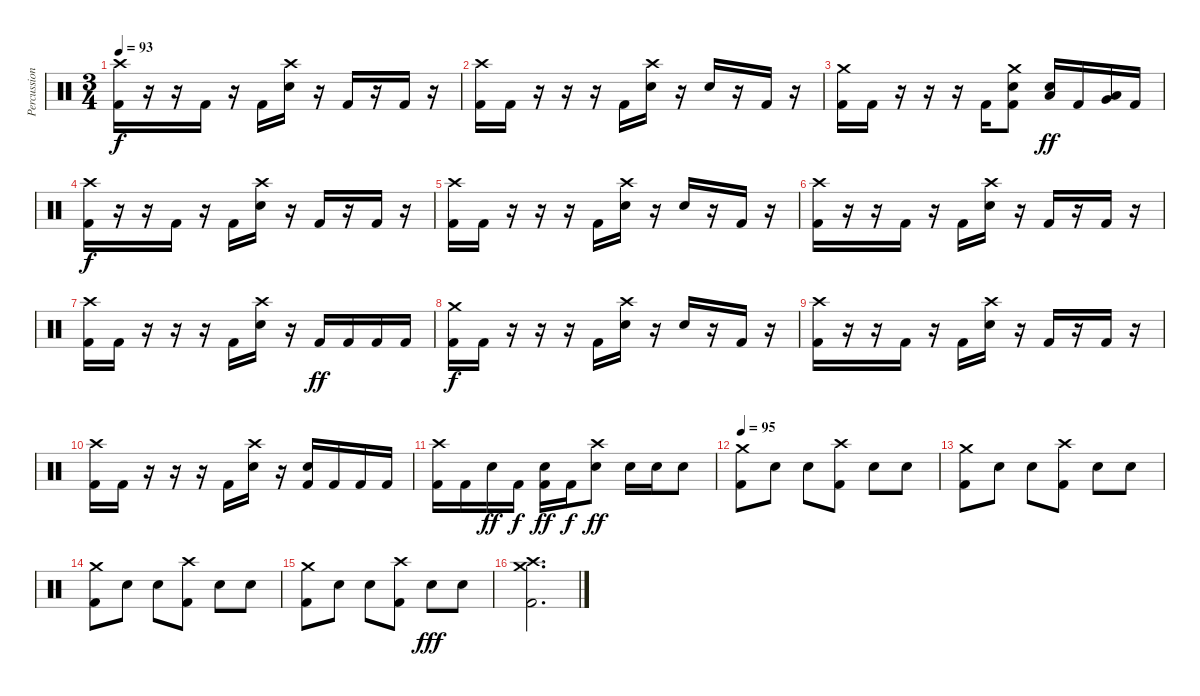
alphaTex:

\track ("Percussion" "Percussion") {instrument percussion}
\staff {score}
\articulation defaults
\ts (3 4)
\tempo 93
\clef neutral
\ks c
("Crash high (hit)" "Kick (hit) 2").16{dy f} r.16 r.16 "Kick (hit) 2".16 r.16 "Kick (hit) 2".16 ("Crash high (hit)" "Electric Snare (hit)").16 r.16 "Kick (hit) 2".16 r.16 "Kick (hit) 2".16 r.16 |
("Crash high (hit)" "Kick (hit) 2").16 "Kick (hit) 2".16 r.16 r.16 r.16 "Kick (hit) 2".16 ("Crash high (hit)" "Electric Snare (hit)").16 r.16 "Electric Snare (hit)".16 r.16 "Kick (hit) 2".16 r.16 |
("Crash medium (hit)" "Kick (hit) 2").16 "Kick (hit) 2".16 r.16 r.16 r.16 "Kick (hit) 2".16 ("Crash medium (hit)" "Electric Snare (hit)" "Kick (hit) 2").8 ("Low Tom (hit)" "Electric Snare (hit)").16{bd 240 dy ff} "Kick (hit) 2".16 ("Very Low Tom (hit)" "Low Floor Tom (hit)").16{bd 480} "Kick (hit) 2".16 |
("Crash high (hit)" "Kick (hit) 2").16{dy f} r.16 r.16 "Kick (hit) 2".16 r.16 "Kick (hit) 2".16 ("Crash high (hit)" "Electric Snare (hit)").16 r.16 "Kick (hit) 2".16 r.16 "Kick (hit) 2".16 r.16 |
("Crash high (hit)" "Kick (hit) 2").16 "Kick (hit) 2".16 r.16 r.16 r.16 "Kick (hit) 2".16 ("Crash high (hit)" "Electric Snare (hit)").16 r.16 "Electric Snare (hit)".16 r.16 "Kick (hit) 2".16 r.16 |
("Crash high (hit)" "Kick (hit) 2").16 r.16 r.16 "Kick (hit) 2".16 r.16 "Kick (hit) 2".16 ("Crash high (hit)" "Electric Snare (hit)").16 r.16 "Kick (hit) 2".16 r.16 "Kick (hit) 2".16 r.16 |
("Crash high (hit)" "Kick (hit) 2").16 "Kick (hit) 2".16 r.16 r.16 r.16 "Kick (hit) 2".16 ("Crash high (hit)" "Electric Snare (hit)").16 r.16 "Kick (hit) 2".16{dy ff} "Kick (hit) 2".16 "Kick (hit) 2".16 "Kick (hit) 2".16 |
("Crash medium (hit)" "Kick (hit) 2").16{dy f} "Kick (hit) 2".16 r.16 r.16 r.16 "Kick (hit) 2".16 ("Crash high (hit)" "Electric Snare (hit)").16 r.16 "Electric Snare (hit)".16 r.16 "Kick (hit) 2".16 r.16 |
("Crash high (hit)" "Kick (hit) 2").16 r.16 r.16 "Kick (hit) 2".16 r.16 "Kick (hit) 2".16 ("Crash high (hit)" "Electric Snare (hit)").16 r.16 "Kick (hit) 2".16 r.16 "Kick (hit) 2".16 r.16 |
("Crash high (hit)" "Kick (hit) 2").16 "Kick (hit) 2".16 r.16 r.16 r.16 "Kick (hit) 2".16 ("Crash high (hit)" "Electric Snare (hit)").16 r.16 ("Electric Snare (hit)" "Kick (hit) 2").16 "Kick (hit) 2".16 "Kick (hit) 2".16 "Kick (hit) 2".16 |
("Crash high (hit)" "Kick (hit) 2").16 "Kick (hit) 2".16 "Electric Snare (hit)".16{dy ff} "Kick (hit) 2".16{dy f} ("Electric Snare (hit)" "Kick (hit) 2").16{dy ff} "Kick (hit) 2".16{dy f} ("Crash high (hit)" "Electric Snare (hit)").8{dy ff} "Electric Snare (hit)".16 "Electric Snare (hit)".16 "Electric Snare (hit)".8 |
\tempo 95
("Crash medium (hit)" "Kick (hit) 2").8 "Electric Snare (hit)".8 "Electric Snare (hit)".8 ("Crash high (hit)" "Kick (hit) 2").8 "Electric Snare (hit)".8 "Electric Snare (hit)".8 |
("Crash medium (hit)" "Kick (hit) 2").8 "Electric Snare (hit)".8 "Electric Snare (hit)".8 ("Crash high (hit)" "Kick (hit) 2").8 "Electric Snare (hit)".8 "Electric Snare (hit)".8 |
("Crash medium (hit)" "Kick (hit) 2").8 "Electric Snare (hit)".8 "Electric Snare (hit)".8 ("Crash high (hit)" "Kick (hit) 2").8 "Electric Snare (hit)".8 "Electric Snare (hit)".8 |
("Crash medium (hit)" "Kick (hit) 2").8 "Electric Snare (hit)".8 "Electric Snare (hit)".8 ("Crash high (hit)" "Kick (hit) 2").8 "Electric Snare (hit)".8{dy fff} "Electric Snare (hit)".8 |
("Crash medium (hit)" "Crash high (hit)" "Kick (hit) 2").2{d}
